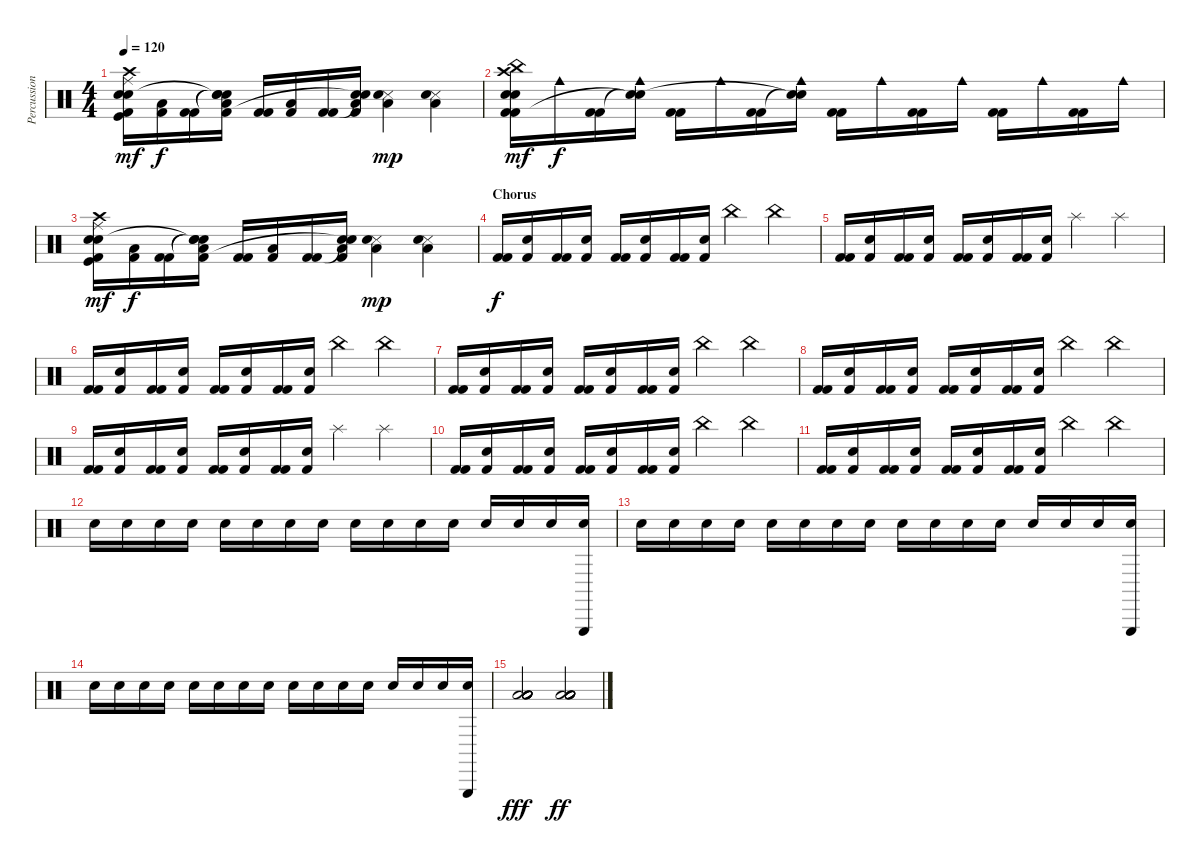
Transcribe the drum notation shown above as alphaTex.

\track ("Percussions" "Percussion") {instrument percussion}
\staff {score}
\articulation defaults
\ts (4 4)
\tempo 120
\clef neutral
\ks c
("Crash high (hit)" "Electric Snare (hit)" "Kick (hit)" "Kick (hit) 2" "Electric Snare (hit)" "Ride (middle)").16{dy mf} ("Low Floor Tom (hit)" "Kick (hit) 2").16{dy f} ("Kick (hit) 2" "Kick (hit) 2").16 ("Snare (hit)"{t} "Snare (hit)"{t} "Low Floor Tom (hit)" "Kick (hit) 2" "Snare (hit)"{t}).16 ("Kick (hit) 2" "Kick (hit) 2").16 ("Low Floor Tom (hit)" "Kick (hit) 2").16 ("Kick (hit) 2" "Kick (hit) 2").16 ("Snare (hit)"{t} "Low Floor Tom (hit)" "Kick (hit) 2" "Snare (hit)"{t}).16 ("Snare (side stick) 3" "Snare (hit) 2" "Low Floor Tom (hit)").4{dy mp} ("Snare (side stick) 3" "Snare (hit) 2" "Low Floor Tom (hit)").4 |
("Crash high (hit)" "Electric Snare (hit)" "Kick (hit) 2" "Kick (hit) 2" "Electric Snare (hit)" "China (hit)").16{dy mf} "Cowbell medium (hit)".16{dy f} ("Kick (hit) 2" "Kick (hit) 2").16 ("Snare (hit)"{t} "Cowbell medium (hit)" "Snare (hit)"{t}).16 ("Kick (hit) 2" "Kick (hit) 2").16 "Cowbell medium (hit)".16 ("Kick (hit) 2" "Kick (hit) 2").16 ("Snare (hit)"{t} "Cowbell medium (hit)" "Snare (hit)"{t}).16 ("Kick (hit) 2" "Kick (hit) 2").16 "Cowbell medium (hit)".16 ("Kick (hit) 2" "Kick (hit) 2").16 "Cowbell medium (hit)".16 ("Kick (hit) 2" "Kick (hit) 2").16 "Cowbell medium (hit)".16 ("Kick (hit) 2" "Kick (hit) 2").16 "Cowbell medium (hit)".16 |
("Crash high (hit)" "Electric Snare (hit)" "Kick (hit)" "Kick (hit) 2" "Electric Snare (hit)" "Ride (middle)").16{dy mf} ("Low Floor Tom (hit)" "Kick (hit) 2").16{dy f} ("Kick (hit) 2" "Kick (hit) 2").16 ("Snare (hit)"{t} "Snare (hit)"{t} "Low Floor Tom (hit)" "Kick (hit) 2" "Snare (hit)"{t}).16 ("Kick (hit) 2" "Kick (hit) 2").16 ("Low Floor Tom (hit)" "Kick (hit) 2").16 ("Kick (hit) 2" "Kick (hit) 2").16 ("Snare (hit)"{t} "Low Floor Tom (hit)" "Kick (hit) 2" "Snare (hit)"{t}).16 ("Snare (side stick) 3" "Snare (hit) 2" "Low Floor Tom (hit)").4{dy mp} ("Snare (side stick) 3" "Snare (hit) 2" "Low Floor Tom (hit)").4 |
\section ("" "Chorus")
("Kick (hit) 2" "Kick (hit) 2").16{dy f} ("Snare (hit) 2" "Kick (hit) 2").16 ("Kick (hit) 2" "Kick (hit) 2").16 ("Snare (hit) 2" "Kick (hit) 2").16 ("Kick (hit) 2" "Kick (hit) 2").16 ("Snare (hit) 2" "Kick (hit) 2").16 ("Kick (hit) 2" "Kick (hit) 2").16 ("Snare (hit) 2" "Kick (hit) 2").16 "China (hit)".4 "China (hit)".4 |
("Kick (hit) 2" "Kick (hit) 2").16 ("Snare (hit) 2" "Kick (hit) 2").16 ("Kick (hit) 2" "Kick (hit) 2").16 ("Snare (hit) 2" "Kick (hit) 2").16 ("Kick (hit) 2" "Kick (hit) 2").16 ("Snare (hit) 2" "Kick (hit) 2").16 ("Kick (hit) 2" "Kick (hit) 2").16 ("Snare (hit) 2" "Kick (hit) 2").16 "Splash (hit)".4 "Splash (hit)".4 |
("Kick (hit) 2" "Kick (hit) 2").16 ("Snare (hit) 2" "Kick (hit) 2").16 ("Kick (hit) 2" "Kick (hit) 2").16 ("Snare (hit) 2" "Kick (hit) 2").16 ("Kick (hit) 2" "Kick (hit) 2").16 ("Snare (hit) 2" "Kick (hit) 2").16 ("Kick (hit) 2" "Kick (hit) 2").16 ("Snare (hit) 2" "Kick (hit) 2").16 "China (hit)".4 "China (hit)".4 |
("Kick (hit) 2" "Kick (hit) 2").16 ("Snare (hit) 2" "Kick (hit) 2").16 ("Kick (hit) 2" "Kick (hit) 2").16 ("Snare (hit) 2" "Kick (hit) 2").16 ("Kick (hit) 2" "Kick (hit) 2").16 ("Snare (hit) 2" "Kick (hit) 2").16 ("Kick (hit) 2" "Kick (hit) 2").16 ("Snare (hit) 2" "Kick (hit) 2").16 "China (hit)".4 "China (hit)".4 |
("Kick (hit) 2" "Kick (hit) 2").16 ("Snare (hit) 2" "Kick (hit) 2").16 ("Kick (hit) 2" "Kick (hit) 2").16 ("Snare (hit) 2" "Kick (hit) 2").16 ("Kick (hit) 2" "Kick (hit) 2").16 ("Snare (hit) 2" "Kick (hit) 2").16 ("Kick (hit) 2" "Kick (hit) 2").16 ("Snare (hit) 2" "Kick (hit) 2").16 "China (hit)".4 "China (hit)".4 |
("Kick (hit) 2" "Kick (hit) 2").16 ("Snare (hit) 2" "Kick (hit) 2").16 ("Kick (hit) 2" "Kick (hit) 2").16 ("Snare (hit) 2" "Kick (hit) 2").16 ("Kick (hit) 2" "Kick (hit) 2").16 ("Snare (hit) 2" "Kick (hit) 2").16 ("Kick (hit) 2" "Kick (hit) 2").16 ("Snare (hit) 2" "Kick (hit) 2").16 "Splash (hit)".4 "Splash (hit)".4 |
("Kick (hit) 2" "Kick (hit) 2").16 ("Snare (hit) 2" "Kick (hit) 2").16 ("Kick (hit) 2" "Kick (hit) 2").16 ("Snare (hit) 2" "Kick (hit) 2").16 ("Kick (hit) 2" "Kick (hit) 2").16 ("Snare (hit) 2" "Kick (hit) 2").16 ("Kick (hit) 2" "Kick (hit) 2").16 ("Snare (hit) 2" "Kick (hit) 2").16 "China (hit)".4 "China (hit)".4 |
("Kick (hit) 2" "Kick (hit) 2").16 ("Snare (hit) 2" "Kick (hit) 2").16 ("Kick (hit) 2" "Kick (hit) 2").16 ("Snare (hit) 2" "Kick (hit) 2").16 ("Kick (hit) 2" "Kick (hit) 2").16 ("Snare (hit) 2" "Kick (hit) 2").16 ("Kick (hit) 2" "Kick (hit) 2").16 ("Snare (hit) 2" "Kick (hit) 2").16 "China (hit)".4 "China (hit)".4 |
"Electric Snare (hit)".16 "Electric Snare (hit)".16 "Electric Snare (hit)".16 "Electric Snare (hit)".16 "Electric Snare (hit)".16 "Electric Snare (hit)".16 "Electric Snare (hit)".16 "Electric Snare (hit)".16 "Snare (hit) 2".16 "Snare (hit) 2".16 "Snare (hit) 2".16 "Snare (hit) 2".16 "Snare (hit) 2".16 "Snare (hit) 2".16 "Snare (hit) 2".16 ("Triangle (hit)" "Snare (hit) 2").16 |
"Electric Snare (hit)".16 "Electric Snare (hit)".16 "Electric Snare (hit)".16 "Electric Snare (hit)".16 "Electric Snare (hit)".16 "Electric Snare (hit)".16 "Electric Snare (hit)".16 "Electric Snare (hit)".16 "Snare (hit) 2".16 "Snare (hit) 2".16 "Snare (hit) 2".16 "Snare (hit) 2".16 "Snare (hit) 2".16 "Snare (hit) 2".16 "Snare (hit) 2".16 ("Triangle (hit)" "Snare (hit) 2").16 |
"Electric Snare (hit)".16 "Electric Snare (hit)".16 "Electric Snare (hit)".16 "Electric Snare (hit)".16 "Electric Snare (hit)".16 "Electric Snare (hit)".16 "Electric Snare (hit)".16 "Electric Snare (hit)".16 "Snare (hit) 2".16 "Snare (hit) 2".16 "Snare (hit) 2".16 "Snare (hit) 2".16 "Snare (hit) 2".16 "Snare (hit) 2".16 "Snare (hit) 2".16 ("Triangle (hit)" "Snare (hit) 2").16 |
("Low Floor Tom (hit)" "Low Floor Tom (hit)" "Low Floor Tom (hit)" "Low Floor Tom (hit)" "Low Floor Tom (hit)" "Low Floor Tom (hit)").2{dy fff} ("Low Floor Tom (hit)" "Low Floor Tom (hit)" "Low Floor Tom (hit)" "Low Tom (hit)" "Low Tom (hit)" "Low Tom (hit)").2{dy ff}
